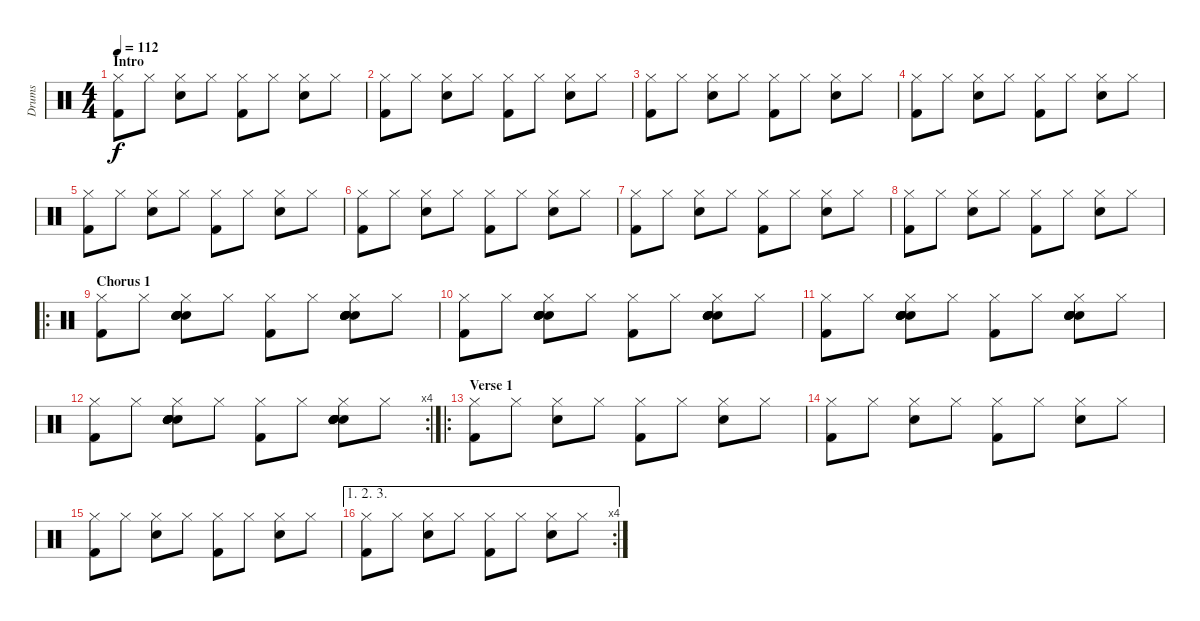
\track ("Drums" "Drums") {instrument percussion}
\staff {score}
\articulation defaults
\ts (4 4)
\section ("" "Intro")
\tempo 112
\clef neutral
\ks c
("Hi-Hat (closed)" "Kick (hit) 2").8{dy f} "Hi-Hat (closed)".8 ("Hi-Hat (closed)" "Snare (hit) 2").8 "Hi-Hat (closed)".8 ("Hi-Hat (closed)" "Kick (hit) 2").8 "Hi-Hat (closed)".8 ("Hi-Hat (closed)" "Snare (hit) 2").8 "Hi-Hat (closed)".8 |
("Hi-Hat (closed)" "Kick (hit) 2").8 "Hi-Hat (closed)".8 ("Hi-Hat (closed)" "Snare (hit) 2").8 "Hi-Hat (closed)".8 ("Hi-Hat (closed)" "Kick (hit) 2").8 "Hi-Hat (closed)".8 ("Hi-Hat (closed)" "Snare (hit) 2").8 "Hi-Hat (closed)".8 |
("Hi-Hat (closed)" "Kick (hit) 2").8 "Hi-Hat (closed)".8 ("Hi-Hat (closed)" "Snare (hit) 2").8 "Hi-Hat (closed)".8 ("Hi-Hat (closed)" "Kick (hit) 2").8 "Hi-Hat (closed)".8 ("Hi-Hat (closed)" "Snare (hit) 2").8 "Hi-Hat (closed)".8 |
("Hi-Hat (closed)" "Kick (hit) 2").8 "Hi-Hat (closed)".8 ("Hi-Hat (closed)" "Snare (hit) 2").8 "Hi-Hat (closed)".8 ("Hi-Hat (closed)" "Kick (hit) 2").8 "Hi-Hat (closed)".8 ("Hi-Hat (closed)" "Snare (hit) 2").8 "Hi-Hat (closed)".8 |
("Hi-Hat (closed)" "Kick (hit) 2").8 "Hi-Hat (closed)".8 ("Hi-Hat (closed)" "Snare (hit) 2").8 "Hi-Hat (closed)".8 ("Hi-Hat (closed)" "Kick (hit) 2").8 "Hi-Hat (closed)".8 ("Hi-Hat (closed)" "Snare (hit) 2").8 "Hi-Hat (closed)".8 |
("Hi-Hat (closed)" "Kick (hit) 2").8 "Hi-Hat (closed)".8 ("Hi-Hat (closed)" "Snare (hit) 2").8 "Hi-Hat (closed)".8 ("Hi-Hat (closed)" "Kick (hit) 2").8 "Hi-Hat (closed)".8 ("Hi-Hat (closed)" "Snare (hit) 2").8 "Hi-Hat (closed)".8 |
("Hi-Hat (closed)" "Kick (hit) 2").8 "Hi-Hat (closed)".8 ("Hi-Hat (closed)" "Snare (hit) 2").8 "Hi-Hat (closed)".8 ("Hi-Hat (closed)" "Kick (hit) 2").8 "Hi-Hat (closed)".8 ("Hi-Hat (closed)" "Snare (hit) 2").8 "Hi-Hat (closed)".8 |
("Hi-Hat (closed)" "Kick (hit) 2").8 "Hi-Hat (closed)".8 ("Hi-Hat (closed)" "Snare (hit) 2").8 "Hi-Hat (closed)".8 ("Hi-Hat (closed)" "Kick (hit) 2").8 "Hi-Hat (closed)".8 ("Hi-Hat (closed)" "Snare (hit) 2").8 "Hi-Hat (closed)".8 |
\ro
\section ("" "Chorus 1")
("Hi-Hat (closed)" "Kick (hit) 2").8 "Hi-Hat (closed)".8 ("Hand Clap (hit)" "Hand Clap (hit)" "Hand Clap (hit)" "Hand Clap (hit)" "Hi-Hat (closed)" "Snare (hit) 2").8 "Hi-Hat (closed)".8 ("Hi-Hat (closed)" "Kick (hit) 2").8 "Hi-Hat (closed)".8 ("Hand Clap (hit)" "Hand Clap (hit)" "Hand Clap (hit)" "Hand Clap (hit)" "Hi-Hat (closed)" "Snare (hit) 2").8 "Hi-Hat (closed)".8 |
("Hi-Hat (closed)" "Kick (hit) 2").8 "Hi-Hat (closed)".8 ("Hand Clap (hit)" "Hand Clap (hit)" "Hand Clap (hit)" "Hand Clap (hit)" "Hi-Hat (closed)" "Snare (hit) 2").8 "Hi-Hat (closed)".8 ("Hi-Hat (closed)" "Kick (hit) 2").8 "Hi-Hat (closed)".8 ("Hand Clap (hit)" "Hand Clap (hit)" "Hand Clap (hit)" "Hand Clap (hit)" "Hi-Hat (closed)" "Snare (hit) 2").8 "Hi-Hat (closed)".8 |
("Hi-Hat (closed)" "Kick (hit) 2").8 "Hi-Hat (closed)".8 ("Hand Clap (hit)" "Hand Clap (hit)" "Hand Clap (hit)" "Hand Clap (hit)" "Hi-Hat (closed)" "Snare (hit) 2").8 "Hi-Hat (closed)".8 ("Hi-Hat (closed)" "Kick (hit) 2").8 "Hi-Hat (closed)".8 ("Hand Clap (hit)" "Hand Clap (hit)" "Hand Clap (hit)" "Hand Clap (hit)" "Hi-Hat (closed)" "Snare (hit) 2").8 "Hi-Hat (closed)".8 |
\rc 4
("Hi-Hat (closed)" "Kick (hit) 2").8 "Hi-Hat (closed)".8 ("Hand Clap (hit)" "Hand Clap (hit)" "Hand Clap (hit)" "Hand Clap (hit)" "Hi-Hat (closed)" "Snare (hit) 2").8 "Hi-Hat (closed)".8 ("Hi-Hat (closed)" "Kick (hit) 2").8 "Hi-Hat (closed)".8 ("Hand Clap (hit)" "Hand Clap (hit)" "Hand Clap (hit)" "Hand Clap (hit)" "Hi-Hat (closed)" "Snare (hit) 2").8 "Hi-Hat (closed)".8 |
\ro
\section ("" "Verse 1")
("Hi-Hat (closed)" "Kick (hit) 2").8 "Hi-Hat (closed)".8 ("Hi-Hat (closed)" "Snare (hit) 2").8 "Hi-Hat (closed)".8 ("Hi-Hat (closed)" "Kick (hit) 2").8 "Hi-Hat (closed)".8 ("Hi-Hat (closed)" "Snare (hit) 2").8 "Hi-Hat (closed)".8 |
("Hi-Hat (closed)" "Kick (hit) 2").8 "Hi-Hat (closed)".8 ("Hi-Hat (closed)" "Snare (hit) 2").8 "Hi-Hat (closed)".8 ("Hi-Hat (closed)" "Kick (hit) 2").8 "Hi-Hat (closed)".8 ("Hi-Hat (closed)" "Snare (hit) 2").8 "Hi-Hat (closed)".8 |
("Hi-Hat (closed)" "Kick (hit) 2").8 "Hi-Hat (closed)".8 ("Hi-Hat (closed)" "Snare (hit) 2").8 "Hi-Hat (closed)".8 ("Hi-Hat (closed)" "Kick (hit) 2").8 "Hi-Hat (closed)".8 ("Hi-Hat (closed)" "Snare (hit) 2").8 "Hi-Hat (closed)".8 |
\ae (1 2 3)
\rc 4
("Hi-Hat (closed)" "Kick (hit) 2").8 "Hi-Hat (closed)".8 ("Hi-Hat (closed)" "Snare (hit) 2").8 "Hi-Hat (closed)".8 ("Hi-Hat (closed)" "Kick (hit) 2").8 "Hi-Hat (closed)".8 ("Hi-Hat (closed)" "Snare (hit) 2").8 "Hi-Hat (closed)".8
